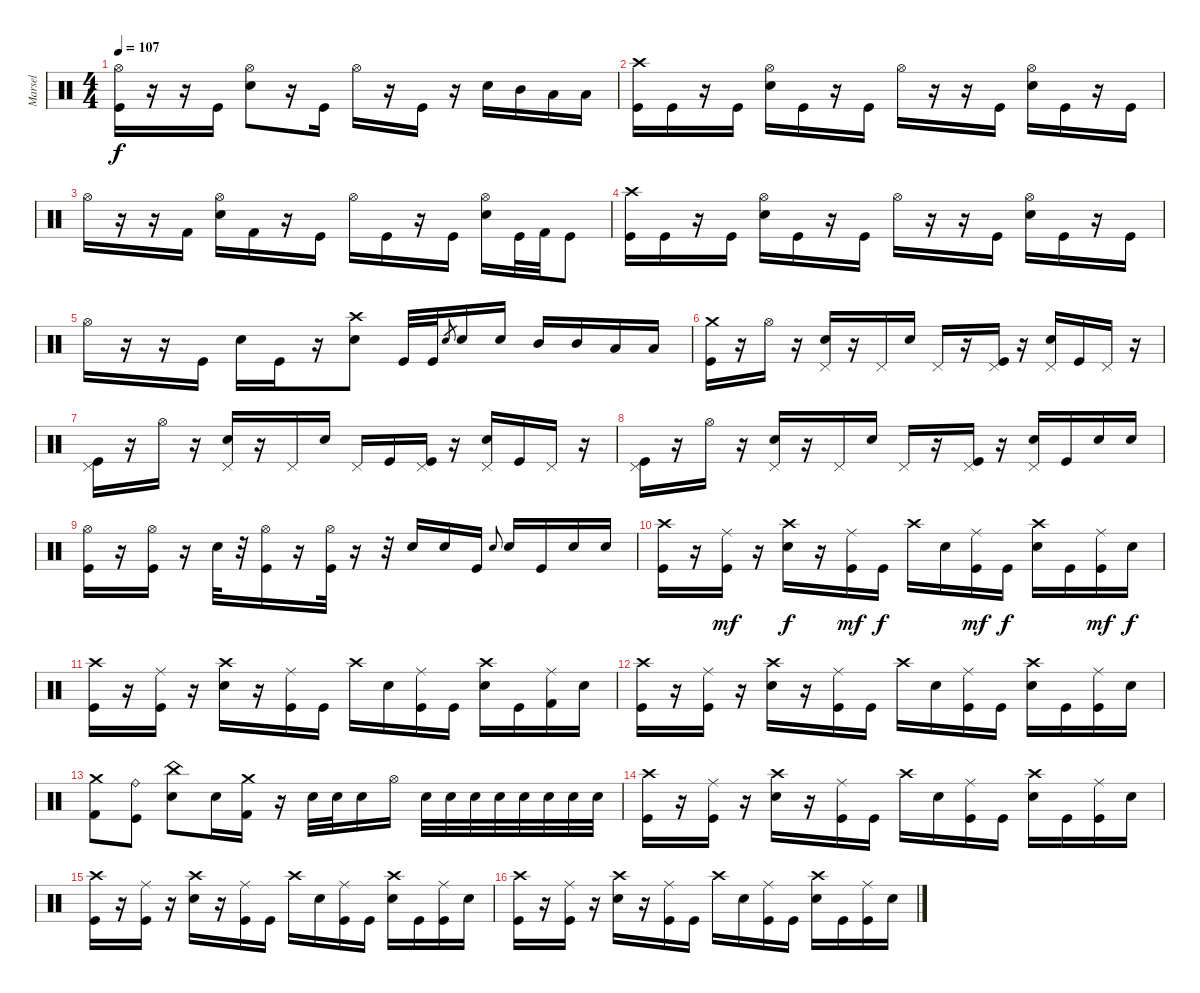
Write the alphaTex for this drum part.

\track ("Marsel" "Marsel") {instrument percussion}
\staff {score}
\articulation defaults
\ts (4 4)
\tempo 107
\clef neutral
\ks c
("Hi-Hat (open)" "Kick (hit)").16{dy f} r.16 r.16 "Kick (hit)".16 ("Hi-Hat (open)" "Snare (hit) 2").8 r.16 "Kick (hit)".16 "Hi-Hat (open)".16 r.16 "Kick (hit)".16 r.16 "Snare (hit) 2".16 "Mid Tom (hit)".16 "Low Tom (hit)".16 "Low Tom (hit)".16 |
("Crash high (hit)" "Kick (hit)").16 "Kick (hit)".16 r.16 "Kick (hit)".16 ("Hi-Hat (open)" "Snare (hit) 2").16 "Kick (hit)".16 r.16 "Kick (hit)".16 "Hi-Hat (open)".16 r.16 r.16 "Kick (hit)".16 ("Hi-Hat (open)" "Snare (hit) 2").16 "Kick (hit)".16 r.16 "Kick (hit)".16 |
"Hi-Hat (open)".16 r.16 r.16 "Kick (hit) 2".16 ("Hi-Hat (open)" "Snare (hit) 2").16 "Kick (hit) 2".16 r.16 "Kick (hit)".16 "Hi-Hat (open)".16 "Kick (hit)".16 r.16 "Kick (hit)".16 ("Hi-Hat (open)" "Snare (hit) 2").16 "Kick (hit)".32 "Kick (hit) 2".32 "Kick (hit)".8 |
("Crash high (hit)" "Kick (hit)").16 "Kick (hit)".16 r.16 "Kick (hit)".16 ("Hi-Hat (open)" "Snare (hit) 2").16 "Kick (hit)".16 r.16 "Kick (hit)".16 "Hi-Hat (open)".16 r.16 r.16 "Kick (hit)".16 ("Hi-Hat (open)" "Snare (hit) 2").16 "Kick (hit)".16 r.16 "Kick (hit)".16 |
"Hi-Hat (open)".16 r.16 r.16 "Kick (hit)".16 "Snare (hit) 2".16 "Kick (hit)".16 r.16 ("Crash high (hit)" "Snare (hit) 2").8 "Kick (hit)".32 "Kick (hit)".32 "Snare (hit) 2".8{gr} "Snare (hit) 2".16 "Snare (hit) 2".16 "Mid Tom (hit)".16 "Mid Tom (hit)".16 "Low Tom (hit)".16 "Low Tom (hit)".16 |
("Crash medium (hit)" "Kick (hit)").16 r.16 "Hi-Hat (open)".16 r.16 ("Pedal Hi-Hat (hit)" "Snare (hit) 2").16 r.16 "Pedal Hi-Hat (hit)".16 "Snare (hit) 2".16 "Pedal Hi-Hat (hit)".16 r.16 ("Pedal Hi-Hat (hit)" "Kick (hit)").16 r.16 ("Pedal Hi-Hat (hit)" "Snare (hit) 2").16 "Kick (hit)".16 "Pedal Hi-Hat (hit)".16 r.16 |
("Pedal Hi-Hat (hit)" "Kick (hit)").16 r.16 "Hi-Hat (open)".16 r.16 ("Pedal Hi-Hat (hit)" "Snare (hit) 2").16 r.16 "Pedal Hi-Hat (hit)".16 "Snare (hit) 2".16 "Pedal Hi-Hat (hit)".16 "Kick (hit)".16 ("Pedal Hi-Hat (hit)" "Kick (hit)").16 r.16 ("Pedal Hi-Hat (hit)" "Snare (hit) 2").16 "Kick (hit)".16 "Pedal Hi-Hat (hit)".16 r.16 |
("Pedal Hi-Hat (hit)" "Kick (hit)").16 r.16 "Hi-Hat (open)".16 r.16 ("Pedal Hi-Hat (hit)" "Snare (hit) 2").16 r.16 "Pedal Hi-Hat (hit)".16 "Snare (hit) 2".16 "Pedal Hi-Hat (hit)".16 r.16 ("Pedal Hi-Hat (hit)" "Kick (hit)").16 r.16 ("Pedal Hi-Hat (hit)" "Snare (hit) 2").16 "Kick (hit)".16 "Snare (hit) 2".16 "Snare (hit) 2".16 |
("Hi-Hat (open)" "Kick (hit)").16 r.16 ("Hi-Hat (open)" "Kick (hit)").16 r.16 "Snare (hit) 2".32 r.32 ("Hi-Hat (open)" "Kick (hit)").16 r.16 ("Hi-Hat (open)" "Kick (hit)").32 r.16 r.32 "Snare (hit) 2".16 "Snare (hit) 2".16 "Kick (hit)".16 "Snare (hit) 2".8{gr onbeat} "Snare (hit) 2".16 "Kick (hit)".16 "Snare (hit) 2".16 "Snare (hit) 2".16 |
("Crash high (hit)" "Kick (hit)").16 r.16 ("Ride (middle)" "Kick (hit)").16{dy mf} r.16 ("Crash high (hit)" "Snare (hit) 2").16{dy f} r.16 ("Ride (middle)" "Kick (hit)").16{dy mf} "Kick (hit)".16{dy f} "Crash high (hit)".16 "Snare (hit) 2".16 ("Ride (middle)" "Kick (hit)").16{dy mf} "Kick (hit)".16{dy f} ("Crash high (hit)" "Snare (hit) 2").16 "Kick (hit)".16 ("Ride (middle)" "Kick (hit)").16{dy mf} "Snare (hit) 2".16{dy f} |
("Crash high (hit)" "Kick (hit)").16 r.16 ("Ride (middle)" "Kick (hit)").16 r.16 ("Crash high (hit)" "Snare (hit) 2").16 r.16 ("Ride (middle)" "Kick (hit)").16 "Kick (hit)".16 "Crash high (hit)".16 "Snare (hit) 2".16 ("Ride (middle)" "Kick (hit)").16 "Kick (hit)".16 ("Crash high (hit)" "Snare (hit) 2").16 "Kick (hit)".16 ("Ride (middle)" "Kick (hit) 2").16 "Snare (hit) 2".16 |
("Crash high (hit)" "Kick (hit)").16 r.16 ("Ride (middle)" "Kick (hit)").16 r.16 ("Crash high (hit)" "Snare (hit) 2").16 r.16 ("Ride (middle)" "Kick (hit)").16 "Kick (hit)".16 "Crash high (hit)".16 "Snare (hit) 2".16 ("Ride (middle)" "Kick (hit)").16 "Kick (hit)".16 ("Crash high (hit)" "Snare (hit) 2").16 "Kick (hit)".16 ("Ride (middle)" "Kick (hit)").16 "Snare (hit) 2".16 |
("Crash medium (hit)" "Kick (hit) 2").8 ("Ride (bell)" "Kick (hit)").8 ("China (hit)" "Snare (hit) 2").8 "Snare (hit) 2".16 ("Crash medium (hit)" "Kick (hit) 2").16 r.16 "Snare (hit) 2".32 "Snare (hit) 2".32 "Snare (hit) 2".16 "Hi-Hat (open)".16 "Snare (hit) 2".32 "Snare (hit) 2".32 "Snare (hit) 2".32 "Snare (hit) 2".32 "Snare (hit) 2".32 "Snare (hit) 2".32 "Snare (hit) 2".32 "Snare (hit) 2".32 |
("Crash high (hit)" "Kick (hit)").16 r.16 ("Ride (middle)" "Kick (hit)").16 r.16 ("Crash high (hit)" "Snare (hit) 2").16 r.16 ("Ride (middle)" "Kick (hit)").16 "Kick (hit)".16 "Crash high (hit)".16 "Snare (hit) 2".16 ("Ride (middle)" "Kick (hit)").16 "Kick (hit)".16 ("Crash high (hit)" "Snare (hit) 2").16 "Kick (hit)".16 ("Ride (middle)" "Kick (hit)").16 "Snare (hit) 2".16 |
("Crash high (hit)" "Kick (hit)").16 r.16 ("Ride (middle)" "Kick (hit)").16 r.16 ("Crash high (hit)" "Snare (hit) 2").16 r.16 ("Ride (middle)" "Kick (hit)").16 "Kick (hit)".16 "Crash high (hit)".16 "Snare (hit) 2".16 ("Ride (middle)" "Kick (hit)").16 "Kick (hit)".16 ("Crash high (hit)" "Snare (hit) 2").16 "Kick (hit)".16 ("Ride (middle)" "Kick (hit)").16 "Snare (hit) 2".16 |
("Crash high (hit)" "Kick (hit)").16 r.16 ("Ride (middle)" "Kick (hit)").16 r.16 ("Crash high (hit)" "Snare (hit) 2").16 r.16 ("Ride (middle)" "Kick (hit)").16 "Kick (hit)".16 "Crash high (hit)".16 "Snare (hit) 2".16 ("Ride (middle)" "Kick (hit)").16 "Kick (hit)".16 ("Crash high (hit)" "Snare (hit) 2").16 "Kick (hit)".16 ("Ride (middle)" "Kick (hit)").16 "Snare (hit) 2".16
